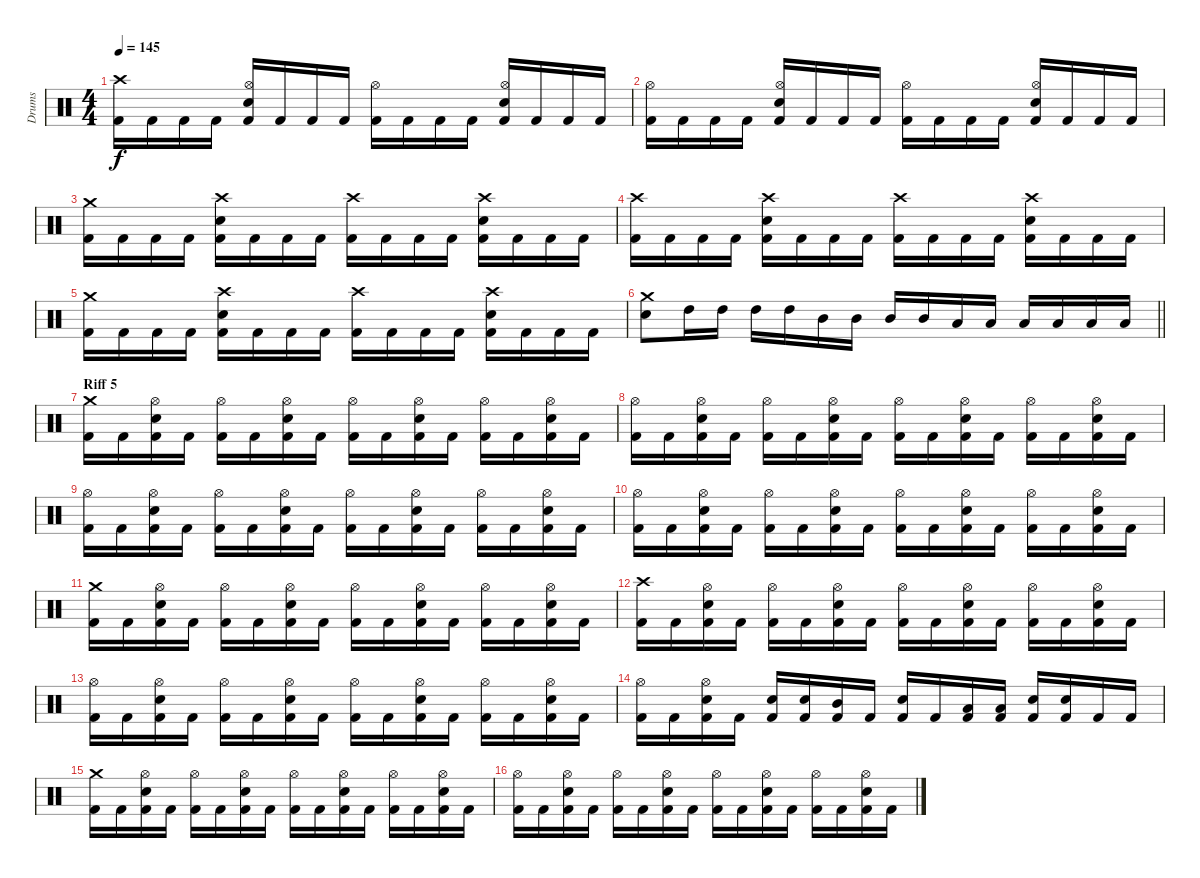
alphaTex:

\track ("Drums" "Drums") {instrument percussion}
\staff {score}
\articulation defaults
\ts (4 4)
\tempo 145
\clef neutral
\ks c
("Crash high (hit)" "Kick (hit) 2").16{dy f} "Kick (hit) 2".16 "Kick (hit) 2".16 "Kick (hit) 2".16 ("Hi-Hat (open)" "Electric Snare (hit)" "Kick (hit) 2").16 "Kick (hit) 2".16 "Kick (hit) 2".16 "Kick (hit) 2".16 ("Hi-Hat (open)" "Kick (hit) 2").16 "Kick (hit) 2".16 "Kick (hit) 2".16 "Kick (hit) 2".16 ("Hi-Hat (open)" "Electric Snare (hit)" "Kick (hit) 2").16 "Kick (hit) 2".16 "Kick (hit) 2".16 "Kick (hit) 2".16 |
("Hi-Hat (open)" "Kick (hit) 2").16 "Kick (hit) 2".16 "Kick (hit) 2".16 "Kick (hit) 2".16 ("Hi-Hat (open)" "Electric Snare (hit)" "Kick (hit) 2").16 "Kick (hit) 2".16 "Kick (hit) 2".16 "Kick (hit) 2".16 ("Hi-Hat (open)" "Kick (hit) 2").16 "Kick (hit) 2".16 "Kick (hit) 2".16 "Kick (hit) 2".16 ("Hi-Hat (open)" "Electric Snare (hit)" "Kick (hit) 2").16 "Kick (hit) 2".16 "Kick (hit) 2".16 "Kick (hit) 2".16 |
("Crash medium (hit)" "Kick (hit) 2").16 "Kick (hit) 2".16 "Kick (hit) 2".16 "Kick (hit) 2".16 ("Crash high (hit)" "Electric Snare (hit)" "Kick (hit) 2").16 "Kick (hit) 2".16 "Kick (hit) 2".16 "Kick (hit) 2".16 ("Crash high (hit)" "Kick (hit) 2").16 "Kick (hit) 2".16 "Kick (hit) 2".16 "Kick (hit) 2".16 ("Crash high (hit)" "Electric Snare (hit)" "Kick (hit) 2").16 "Kick (hit) 2".16 "Kick (hit) 2".16 "Kick (hit) 2".16 |
("Crash high (hit)" "Kick (hit) 2").16 "Kick (hit) 2".16 "Kick (hit) 2".16 "Kick (hit) 2".16 ("Crash high (hit)" "Electric Snare (hit)" "Kick (hit) 2").16 "Kick (hit) 2".16 "Kick (hit) 2".16 "Kick (hit) 2".16 ("Crash high (hit)" "Kick (hit) 2").16 "Kick (hit) 2".16 "Kick (hit) 2".16 "Kick (hit) 2".16 ("Crash high (hit)" "Electric Snare (hit)" "Kick (hit) 2").16 "Kick (hit) 2".16 "Kick (hit) 2".16 "Kick (hit) 2".16 |
("Crash medium (hit)" "Kick (hit) 2").16 "Kick (hit) 2".16 "Kick (hit) 2".16 "Kick (hit) 2".16 ("Crash high (hit)" "Electric Snare (hit)" "Kick (hit) 2").16 "Kick (hit) 2".16 "Kick (hit) 2".16 "Kick (hit) 2".16 ("Crash high (hit)" "Kick (hit) 2").16 "Kick (hit) 2".16 "Kick (hit) 2".16 "Kick (hit) 2".16 ("Crash high (hit)" "Electric Snare (hit)" "Kick (hit) 2").16 "Kick (hit) 2".16 "Kick (hit) 2".16 "Kick (hit) 2".16 |
\barLineRight lightlight
("Crash medium (hit)" "Electric Snare (hit)").8 "High Tom (hit)".16 "High Tom (hit)".16 "High Tom (hit)".16 "High Tom (hit)".16 "Mid Tom (hit)".16 "Mid Tom (hit)".16 "Mid Tom (hit)".16 "Mid Tom (hit)".16 "Low Tom (hit)".16 "Low Tom (hit)".16 "Low Tom (hit)".16 "Low Tom (hit)".16 "Low Floor Tom (hit)".16 "Low Floor Tom (hit)".16 |
\section ("" "Riff 5")
("Crash medium (hit)" "Kick (hit) 2").16 "Kick (hit) 2".16 ("Hi-Hat (open)" "Electric Snare (hit)" "Kick (hit) 2").16 "Kick (hit) 2".16 ("Hi-Hat (open)" "Kick (hit) 2").16 "Kick (hit) 2".16 ("Hi-Hat (open)" "Electric Snare (hit)" "Kick (hit) 2").16 "Kick (hit) 2".16 ("Hi-Hat (open)" "Kick (hit) 2").16 "Kick (hit) 2".16 ("Hi-Hat (open)" "Electric Snare (hit)" "Kick (hit) 2").16 "Kick (hit) 2".16 ("Hi-Hat (open)" "Kick (hit) 2").16 "Kick (hit) 2".16 ("Hi-Hat (open)" "Electric Snare (hit)" "Kick (hit) 2").16 "Kick (hit) 2".16 |
("Hi-Hat (open)" "Kick (hit) 2").16 "Kick (hit) 2".16 ("Hi-Hat (open)" "Electric Snare (hit)" "Kick (hit) 2").16 "Kick (hit) 2".16 ("Hi-Hat (open)" "Kick (hit) 2").16 "Kick (hit) 2".16 ("Hi-Hat (open)" "Electric Snare (hit)" "Kick (hit) 2").16 "Kick (hit) 2".16 ("Hi-Hat (open)" "Kick (hit) 2").16 "Kick (hit) 2".16 ("Hi-Hat (open)" "Electric Snare (hit)" "Kick (hit) 2").16 "Kick (hit) 2".16 ("Hi-Hat (open)" "Kick (hit) 2").16 "Kick (hit) 2".16 ("Hi-Hat (open)" "Electric Snare (hit)" "Kick (hit) 2").16 "Kick (hit) 2".16 |
("Hi-Hat (open)" "Kick (hit) 2").16 "Kick (hit) 2".16 ("Hi-Hat (open)" "Electric Snare (hit)" "Kick (hit) 2").16 "Kick (hit) 2".16 ("Hi-Hat (open)" "Kick (hit) 2").16 "Kick (hit) 2".16 ("Hi-Hat (open)" "Electric Snare (hit)" "Kick (hit) 2").16 "Kick (hit) 2".16 ("Hi-Hat (open)" "Kick (hit) 2").16 "Kick (hit) 2".16 ("Hi-Hat (open)" "Electric Snare (hit)" "Kick (hit) 2").16 "Kick (hit) 2".16 ("Hi-Hat (open)" "Kick (hit) 2").16 "Kick (hit) 2".16 ("Hi-Hat (open)" "Electric Snare (hit)" "Kick (hit) 2").16 "Kick (hit) 2".16 |
("Hi-Hat (open)" "Kick (hit) 2").16 "Kick (hit) 2".16 ("Hi-Hat (open)" "Electric Snare (hit)" "Kick (hit) 2").16 "Kick (hit) 2".16 ("Hi-Hat (open)" "Kick (hit) 2").16 "Kick (hit) 2".16 ("Hi-Hat (open)" "Electric Snare (hit)" "Kick (hit) 2").16 "Kick (hit) 2".16 ("Hi-Hat (open)" "Kick (hit) 2").16 "Kick (hit) 2".16 ("Hi-Hat (open)" "Electric Snare (hit)" "Kick (hit) 2").16 "Kick (hit) 2".16 ("Hi-Hat (open)" "Kick (hit) 2").16 "Kick (hit) 2".16 ("Hi-Hat (open)" "Electric Snare (hit)" "Kick (hit) 2").16 "Kick (hit) 2".16 |
("Crash medium (hit)" "Kick (hit) 2").16 "Kick (hit) 2".16 ("Hi-Hat (open)" "Electric Snare (hit)" "Kick (hit) 2").16 "Kick (hit) 2".16 ("Hi-Hat (open)" "Kick (hit) 2").16 "Kick (hit) 2".16 ("Hi-Hat (open)" "Electric Snare (hit)" "Kick (hit) 2").16 "Kick (hit) 2".16 ("Hi-Hat (open)" "Kick (hit) 2").16 "Kick (hit) 2".16 ("Hi-Hat (open)" "Electric Snare (hit)" "Kick (hit) 2").16 "Kick (hit) 2".16 ("Hi-Hat (open)" "Kick (hit) 2").16 "Kick (hit) 2".16 ("Hi-Hat (open)" "Electric Snare (hit)" "Kick (hit) 2").16 "Kick (hit) 2".16 |
("Crash high (hit)" "Kick (hit) 2").16 "Kick (hit) 2".16 ("Hi-Hat (open)" "Electric Snare (hit)" "Kick (hit) 2").16 "Kick (hit) 2".16 ("Hi-Hat (open)" "Kick (hit) 2").16 "Kick (hit) 2".16 ("Hi-Hat (open)" "Electric Snare (hit)" "Kick (hit) 2").16 "Kick (hit) 2".16 ("Hi-Hat (open)" "Kick (hit) 2").16 "Kick (hit) 2".16 ("Hi-Hat (open)" "Electric Snare (hit)" "Kick (hit) 2").16 "Kick (hit) 2".16 ("Hi-Hat (open)" "Kick (hit) 2").16 "Kick (hit) 2".16 ("Hi-Hat (open)" "Electric Snare (hit)" "Kick (hit) 2").16 "Kick (hit) 2".16 |
("Hi-Hat (open)" "Kick (hit) 2").16 "Kick (hit) 2".16 ("Hi-Hat (open)" "Electric Snare (hit)" "Kick (hit) 2").16 "Kick (hit) 2".16 ("Hi-Hat (open)" "Kick (hit) 2").16 "Kick (hit) 2".16 ("Hi-Hat (open)" "Electric Snare (hit)" "Kick (hit) 2").16 "Kick (hit) 2".16 ("Hi-Hat (open)" "Kick (hit) 2").16 "Kick (hit) 2".16 ("Hi-Hat (open)" "Electric Snare (hit)" "Kick (hit) 2").16 "Kick (hit) 2".16 ("Hi-Hat (open)" "Kick (hit) 2").16 "Kick (hit) 2".16 ("Hi-Hat (open)" "Electric Snare (hit)" "Kick (hit) 2").16 "Kick (hit) 2".16 |
("Hi-Hat (open)" "Kick (hit) 2").16 "Kick (hit) 2".16 ("Hi-Hat (open)" "Electric Snare (hit)" "Kick (hit) 2").16 "Kick (hit) 2".16 ("Electric Snare (hit)" "Kick (hit) 2").16 ("Electric Snare (hit)" "Kick (hit) 2").16 ("Mid Tom (hit)" "Kick (hit) 2").16 "Kick (hit) 2".16 ("Electric Snare (hit)" "Kick (hit) 2").16 "Kick (hit) 2".16 ("Low Tom (hit)" "Kick (hit) 2").16 ("Low Tom (hit)" "Kick (hit) 2").16 ("Electric Snare (hit)" "Kick (hit) 2").16 ("Electric Snare (hit)" "Kick (hit) 2").16 "Kick (hit) 2".16 "Kick (hit) 2".16 |
("Crash medium (hit)" "Kick (hit) 2").16 "Kick (hit) 2".16 ("Hi-Hat (open)" "Electric Snare (hit)" "Kick (hit) 2").16 "Kick (hit) 2".16 ("Hi-Hat (open)" "Kick (hit) 2").16 "Kick (hit) 2".16 ("Hi-Hat (open)" "Electric Snare (hit)" "Kick (hit) 2").16 "Kick (hit) 2".16 ("Hi-Hat (open)" "Kick (hit) 2").16 "Kick (hit) 2".16 ("Hi-Hat (open)" "Electric Snare (hit)" "Kick (hit) 2").16 "Kick (hit) 2".16 ("Hi-Hat (open)" "Kick (hit) 2").16 "Kick (hit) 2".16 ("Hi-Hat (open)" "Electric Snare (hit)" "Kick (hit) 2").16 "Kick (hit) 2".16 |
("Hi-Hat (open)" "Kick (hit) 2").16 "Kick (hit) 2".16 ("Hi-Hat (open)" "Electric Snare (hit)" "Kick (hit) 2").16 "Kick (hit) 2".16 ("Hi-Hat (open)" "Kick (hit) 2").16 "Kick (hit) 2".16 ("Hi-Hat (open)" "Electric Snare (hit)" "Kick (hit) 2").16 "Kick (hit) 2".16 ("Hi-Hat (open)" "Kick (hit) 2").16 "Kick (hit) 2".16 ("Hi-Hat (open)" "Electric Snare (hit)" "Kick (hit) 2").16 "Kick (hit) 2".16 ("Hi-Hat (open)" "Kick (hit) 2").16 "Kick (hit) 2".16 ("Hi-Hat (open)" "Electric Snare (hit)" "Kick (hit) 2").16 "Kick (hit) 2".16
